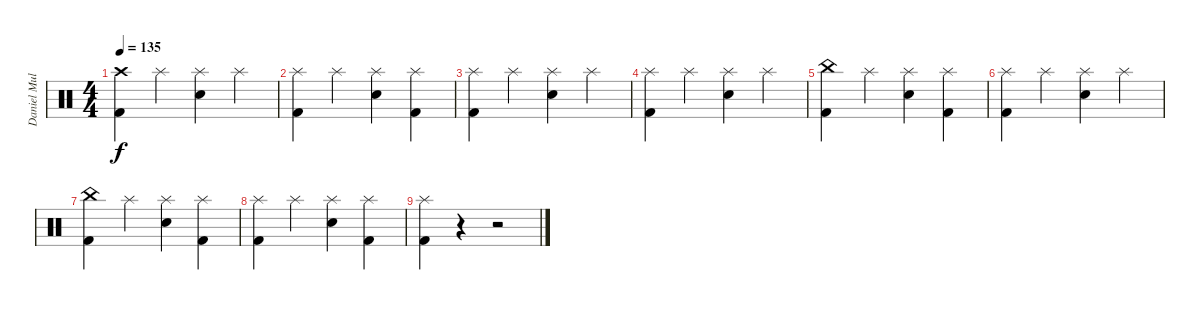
\track ("Daniel Mullback" "Daniel Mul") {instrument percussion}
\staff {score}
\articulation defaults
\ts (4 4)
\tempo 135
\clef neutral
\ks c
("Crash high (hit)" "Kick (hit) 2").4{dy f} "Splash (hit)".4 ("Splash (hit)" "Snare (hit) 2").4 "Splash (hit)".4 |
("Splash (hit)" "Kick (hit) 2").4 "Splash (hit)".4 ("Splash (hit)" "Snare (hit) 2").4 ("Splash (hit)" "Kick (hit) 2").4 |
("Splash (hit)" "Kick (hit) 2").4 "Splash (hit)".4 ("Splash (hit)" "Snare (hit) 2").4 "Splash (hit)".4 |
("Splash (hit)" "Kick (hit) 2").4 "Splash (hit)".4 ("Splash (hit)" "Snare (hit) 2").4 "Splash (hit)".4 |
("China (hit)" "Kick (hit) 2").4 "Splash (hit)".4 ("Splash (hit)" "Snare (hit) 2").4 ("Splash (hit)" "Kick (hit) 2").4 |
("Splash (hit)" "Kick (hit) 2").4 "Splash (hit)".4 ("Splash (hit)" "Snare (hit) 2").4 "Splash (hit)".4 |
("China (hit)" "Kick (hit) 2").4 "Splash (hit)".4 ("Splash (hit)" "Snare (hit) 2").4 ("Splash (hit)" "Kick (hit) 2").4 |
("Splash (hit)" "Kick (hit) 2").4 "Splash (hit)".4 ("Splash (hit)" "Snare (hit) 2").4 ("Splash (hit)" "Kick (hit) 2").4 |
("Splash (hit)" "Kick (hit) 2").4 r.4 r.2
